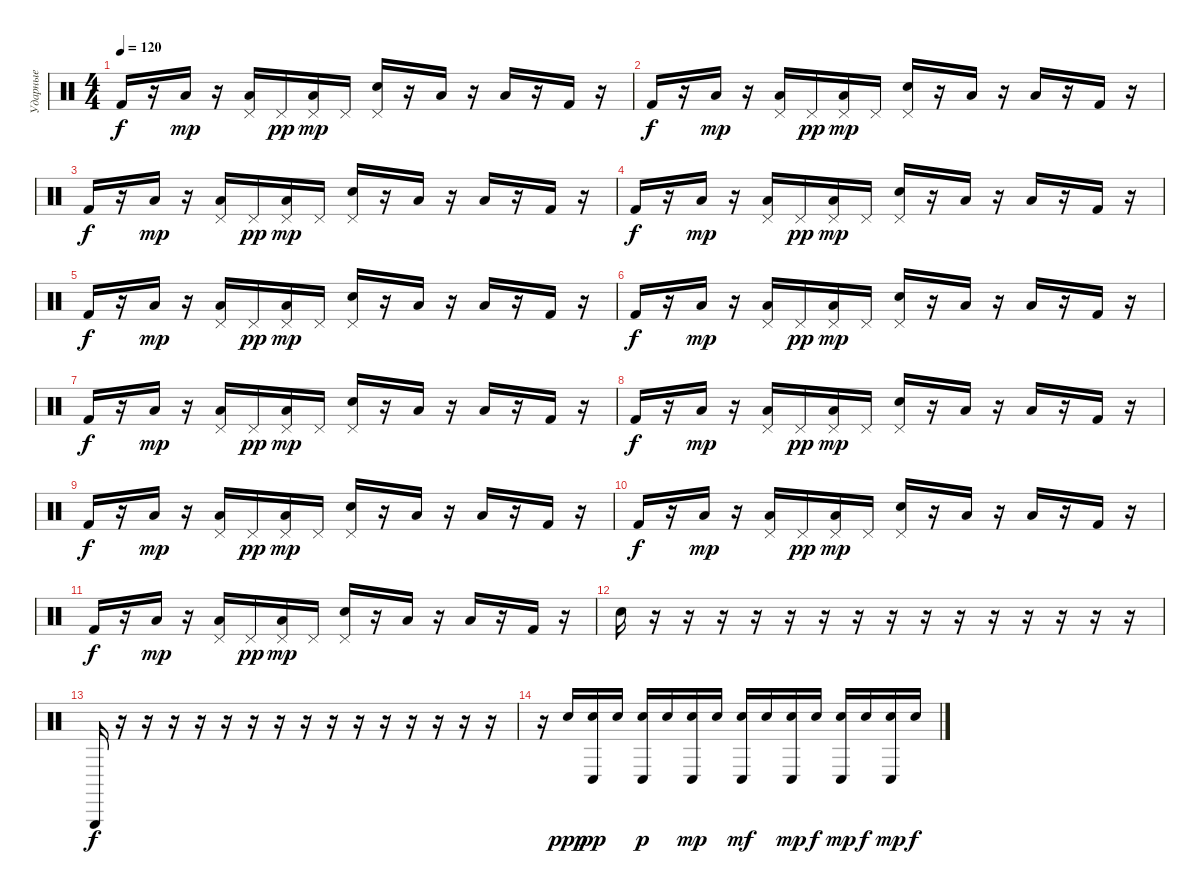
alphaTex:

\track ("Ударные" "Ударные") {instrument percussion}
\staff {score}
\articulation defaults
\ts (4 4)
\tempo 120
\clef neutral
\ks c "Kick (hit) 2".16{dy f}
r.16 "Low Floor Tom (hit)".16{dy mp} r.16 ("Pedal Hi-Hat (hit)" "Low Floor Tom (hit)").16 "Pedal Hi-Hat (hit)".16{dy pp} ("Pedal Hi-Hat (hit)" "Low Floor Tom (hit)").16{dy mp} "Pedal Hi-Hat (hit)".16 ("Pedal Hi-Hat (hit)" "Electric Snare (hit)").16 r.16 "Low Floor Tom (hit)".16 r.16 "Low Floor Tom (hit)".16 r.16 "Kick (hit) 2".16 r.16 |
"Kick (hit) 2".16{dy f} r.16 "Low Floor Tom (hit)".16{dy mp} r.16 ("Pedal Hi-Hat (hit)" "Low Floor Tom (hit)").16 "Pedal Hi-Hat (hit)".16{dy pp} ("Pedal Hi-Hat (hit)" "Low Floor Tom (hit)").16{dy mp} "Pedal Hi-Hat (hit)".16 ("Pedal Hi-Hat (hit)" "Electric Snare (hit)").16 r.16 "Low Floor Tom (hit)".16 r.16 "Low Floor Tom (hit)".16 r.16 "Kick (hit) 2".16 r.16 |
"Kick (hit) 2".16{dy f} r.16 "Low Floor Tom (hit)".16{dy mp} r.16 ("Pedal Hi-Hat (hit)" "Low Floor Tom (hit)").16 "Pedal Hi-Hat (hit)".16{dy pp} ("Pedal Hi-Hat (hit)" "Low Floor Tom (hit)").16{dy mp} "Pedal Hi-Hat (hit)".16 ("Pedal Hi-Hat (hit)" "Electric Snare (hit)").16 r.16 "Low Floor Tom (hit)".16 r.16 "Low Floor Tom (hit)".16 r.16 "Kick (hit) 2".16 r.16 |
"Kick (hit) 2".16{dy f} r.16 "Low Floor Tom (hit)".16{dy mp} r.16 ("Pedal Hi-Hat (hit)" "Low Floor Tom (hit)").16 "Pedal Hi-Hat (hit)".16{dy pp} ("Pedal Hi-Hat (hit)" "Low Floor Tom (hit)").16{dy mp} "Pedal Hi-Hat (hit)".16 ("Pedal Hi-Hat (hit)" "Electric Snare (hit)").16 r.16 "Low Floor Tom (hit)".16 r.16 "Low Floor Tom (hit)".16 r.16 "Kick (hit) 2".16 r.16 |
"Kick (hit) 2".16{dy f} r.16 "Low Floor Tom (hit)".16{dy mp} r.16 ("Pedal Hi-Hat (hit)" "Low Floor Tom (hit)").16 "Pedal Hi-Hat (hit)".16{dy pp} ("Pedal Hi-Hat (hit)" "Low Floor Tom (hit)").16{dy mp} "Pedal Hi-Hat (hit)".16 ("Pedal Hi-Hat (hit)" "Electric Snare (hit)").16 r.16 "Low Floor Tom (hit)".16 r.16 "Low Floor Tom (hit)".16 r.16 "Kick (hit) 2".16 r.16 |
"Kick (hit) 2".16{dy f} r.16 "Low Floor Tom (hit)".16{dy mp} r.16 ("Pedal Hi-Hat (hit)" "Low Floor Tom (hit)").16 "Pedal Hi-Hat (hit)".16{dy pp} ("Pedal Hi-Hat (hit)" "Low Floor Tom (hit)").16{dy mp} "Pedal Hi-Hat (hit)".16 ("Pedal Hi-Hat (hit)" "Electric Snare (hit)").16 r.16 "Low Floor Tom (hit)".16 r.16 "Low Floor Tom (hit)".16 r.16 "Kick (hit) 2".16 r.16 |
"Kick (hit) 2".16{dy f} r.16 "Low Floor Tom (hit)".16{dy mp} r.16 ("Pedal Hi-Hat (hit)" "Low Floor Tom (hit)").16 "Pedal Hi-Hat (hit)".16{dy pp} ("Pedal Hi-Hat (hit)" "Low Floor Tom (hit)").16{dy mp} "Pedal Hi-Hat (hit)".16 ("Pedal Hi-Hat (hit)" "Electric Snare (hit)").16 r.16 "Low Floor Tom (hit)".16 r.16 "Low Floor Tom (hit)".16 r.16 "Kick (hit) 2".16 r.16 |
"Kick (hit) 2".16{dy f} r.16 "Low Floor Tom (hit)".16{dy mp} r.16 ("Pedal Hi-Hat (hit)" "Low Floor Tom (hit)").16 "Pedal Hi-Hat (hit)".16{dy pp} ("Pedal Hi-Hat (hit)" "Low Floor Tom (hit)").16{dy mp} "Pedal Hi-Hat (hit)".16 ("Pedal Hi-Hat (hit)" "Electric Snare (hit)").16 r.16 "Low Floor Tom (hit)".16 r.16 "Low Floor Tom (hit)".16 r.16 "Kick (hit) 2".16 r.16 |
"Kick (hit) 2".16{dy f} r.16 "Low Floor Tom (hit)".16{dy mp} r.16 ("Pedal Hi-Hat (hit)" "Low Floor Tom (hit)").16 "Pedal Hi-Hat (hit)".16{dy pp} ("Pedal Hi-Hat (hit)" "Low Floor Tom (hit)").16{dy mp} "Pedal Hi-Hat (hit)".16 ("Pedal Hi-Hat (hit)" "Electric Snare (hit)").16 r.16 "Low Floor Tom (hit)".16 r.16 "Low Floor Tom (hit)".16 r.16 "Kick (hit) 2".16 r.16 |
"Kick (hit) 2".16{dy f} r.16 "Low Floor Tom (hit)".16{dy mp} r.16 ("Pedal Hi-Hat (hit)" "Low Floor Tom (hit)").16 "Pedal Hi-Hat (hit)".16{dy pp} ("Pedal Hi-Hat (hit)" "Low Floor Tom (hit)").16{dy mp} "Pedal Hi-Hat (hit)".16 ("Pedal Hi-Hat (hit)" "Electric Snare (hit)").16 r.16 "Low Floor Tom (hit)".16 r.16 "Low Floor Tom (hit)".16 r.16 "Kick (hit) 2".16 r.16 |
"Kick (hit) 2".16{dy f} r.16 "Low Floor Tom (hit)".16{dy mp} r.16 ("Pedal Hi-Hat (hit)" "Low Floor Tom (hit)").16 "Pedal Hi-Hat (hit)".16{dy pp} ("Pedal Hi-Hat (hit)" "Low Floor Tom (hit)").16{dy mp} "Pedal Hi-Hat (hit)".16 ("Pedal Hi-Hat (hit)" "Electric Snare (hit)").16 r.16 "Low Floor Tom (hit)".16 r.16 "Low Floor Tom (hit)".16 r.16 "Kick (hit) 2".16 r.16 |
"Electric Snare (hit)".16 r.16 r.16 r.16 r.16 r.16 r.16 r.16 r.16 r.16 r.16 r.16 r.16 r.16 r.16 r.16 |
"Triangle (hit)".16{dy f} r.16 r.16 r.16 r.16 r.16 r.16 r.16 r.16 r.16 r.16 r.16 r.16 r.16 r.16 r.16 |
r.16 "Electric Snare (hit)".16{dy ppp} ("Conga low (hit)" "Electric Snare (hit)").16{dy pp} "Electric Snare (hit)".16 ("Conga low (hit)" "Electric Snare (hit)").16{dy p} "Electric Snare (hit)".16 ("Conga low (hit)" "Electric Snare (hit)").16{dy mp} "Electric Snare (hit)".16 ("Conga low (hit)" "Electric Snare (hit)").16{dy mf} "Electric Snare (hit)".16 ("Conga low (hit)" "Electric Snare (hit)").16{dy mp} "Electric Snare (hit)".16{dy f} ("Conga low (hit)" "Electric Snare (hit)").16{dy mp} "Electric Snare (hit)".16{dy f} ("Conga low (hit)" "Electric Snare (hit)").16{dy mp} "Electric Snare (hit)".16{dy f}
